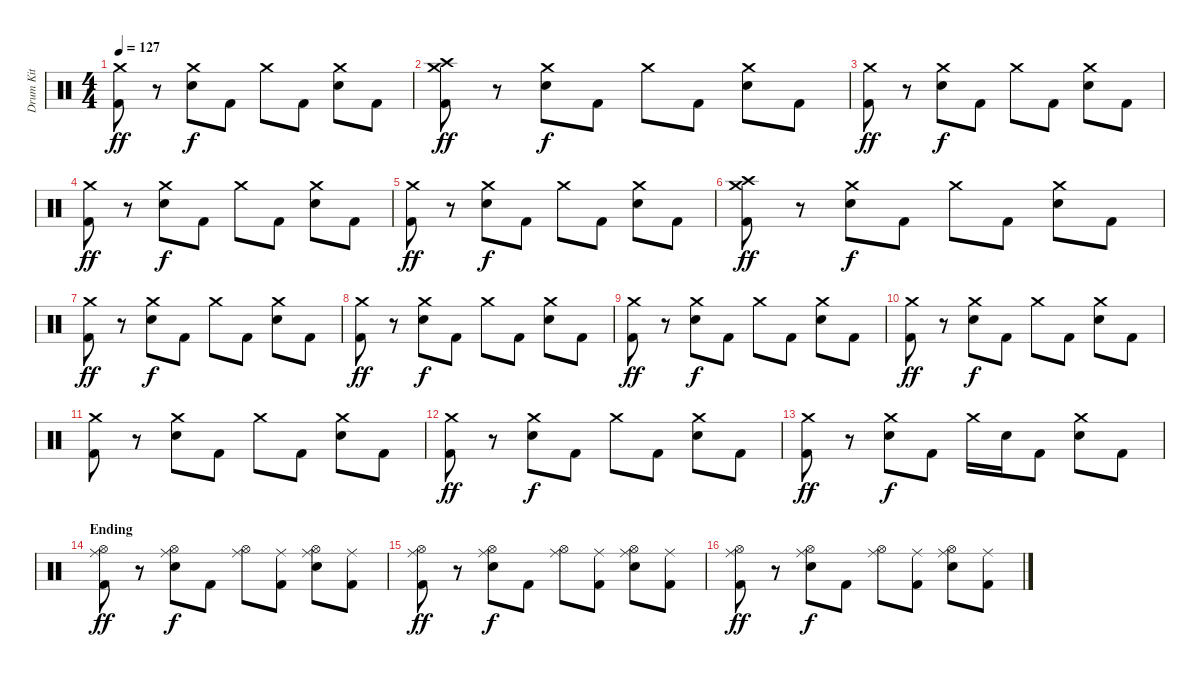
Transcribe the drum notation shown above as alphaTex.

\track ("Drum Kit" "Drum Kit") {instrument percussion}
\staff {score}
\articulation defaults
\ts (4 4)
\tempo 127
\clef neutral
\ks c
("Crash medium (hit)" "Kick (hit) 2").8{dy ff} r.8 ("Crash medium (hit)" "Electric Snare (hit)").8{dy f} "Kick (hit) 2".8 "Crash medium (hit)".8 "Kick (hit) 2".8 ("Crash medium (hit)" "Electric Snare (hit)").8 "Kick (hit) 2".8 |
("Crash high (hit)" "Crash medium (hit)" "Kick (hit) 2").8{dy ff} r.8 ("Crash medium (hit)" "Electric Snare (hit)").8{dy f} "Kick (hit) 2".8 "Crash medium (hit)".8 "Kick (hit) 2".8 ("Crash medium (hit)" "Electric Snare (hit)").8 "Kick (hit) 2".8 |
("Crash medium (hit)" "Kick (hit) 2").8{dy ff} r.8 ("Crash medium (hit)" "Electric Snare (hit)").8{dy f} "Kick (hit) 2".8 "Crash medium (hit)".8 "Kick (hit) 2".8 ("Crash medium (hit)" "Electric Snare (hit)").8 "Kick (hit) 2".8 |
("Crash medium (hit)" "Kick (hit) 2").8{dy ff} r.8 ("Crash medium (hit)" "Electric Snare (hit)").8{dy f} "Kick (hit) 2".8 "Crash medium (hit)".8 "Kick (hit) 2".8 ("Crash medium (hit)" "Electric Snare (hit)").8 "Kick (hit) 2".8 |
("Crash medium (hit)" "Kick (hit) 2").8{dy ff} r.8 ("Crash medium (hit)" "Electric Snare (hit)").8{dy f} "Kick (hit) 2".8 "Crash medium (hit)".8 "Kick (hit) 2".8 ("Crash medium (hit)" "Electric Snare (hit)").8 "Kick (hit) 2".8 |
("Crash high (hit)" "Crash medium (hit)" "Kick (hit) 2").8{dy ff} r.8 ("Crash medium (hit)" "Electric Snare (hit)").8{dy f} "Kick (hit) 2".8 "Crash medium (hit)".8 "Kick (hit) 2".8 ("Crash medium (hit)" "Electric Snare (hit)").8 "Kick (hit) 2".8 |
("Crash medium (hit)" "Kick (hit) 2").8{dy ff} r.8 ("Crash medium (hit)" "Electric Snare (hit)").8{dy f} "Kick (hit) 2".8 "Crash medium (hit)".8 "Kick (hit) 2".8 ("Crash medium (hit)" "Electric Snare (hit)").8 "Kick (hit) 2".8 |
("Crash medium (hit)" "Kick (hit) 2").8{dy ff} r.8 ("Crash medium (hit)" "Electric Snare (hit)").8{dy f} "Kick (hit) 2".8 "Crash medium (hit)".8 "Kick (hit) 2".8 ("Crash medium (hit)" "Electric Snare (hit)").8 "Kick (hit) 2".8 |
("Crash medium (hit)" "Kick (hit) 2").8{dy ff} r.8 ("Crash medium (hit)" "Electric Snare (hit)").8{dy f} "Kick (hit) 2".8 "Crash medium (hit)".8 "Kick (hit) 2".8 ("Crash medium (hit)" "Electric Snare (hit)").8 "Kick (hit) 2".8 |
("Crash medium (hit)" "Kick (hit) 2").8{dy ff} r.8 ("Crash medium (hit)" "Electric Snare (hit)").8{dy f} "Kick (hit) 2".8 "Crash medium (hit)".8 "Kick (hit) 2".8 ("Crash medium (hit)" "Electric Snare (hit)").8 "Kick (hit) 2".8 |
("Crash medium (hit)" "Kick (hit) 2").8 r.8 ("Crash medium (hit)" "Electric Snare (hit)").8 "Kick (hit) 2".8 "Crash medium (hit)".8 "Kick (hit) 2".8 ("Crash medium (hit)" "Electric Snare (hit)").8 "Kick (hit) 2".8 |
("Crash medium (hit)" "Kick (hit) 2").8{dy ff} r.8 ("Crash medium (hit)" "Electric Snare (hit)").8{dy f} "Kick (hit) 2".8 "Crash medium (hit)".8 "Kick (hit) 2".8 ("Crash medium (hit)" "Electric Snare (hit)").8 "Kick (hit) 2".8 |
("Crash medium (hit)" "Kick (hit) 2").8{dy ff} r.8 ("Crash medium (hit)" "Electric Snare (hit)").8{dy f} "Kick (hit) 2".8 "Crash medium (hit)".16 "Electric Snare (hit)".16 "Kick (hit) 2".8 ("Crash medium (hit)" "Electric Snare (hit)").8 "Kick (hit) 2".8 |
\section ("" "Ending")
("Ride (middle)" "Hi-Hat (open)" "Kick (hit) 2").8{dy ff} r.8 ("Ride (middle)" "Hi-Hat (open)" "Electric Snare (hit)").8{dy f} "Kick (hit) 2".8 ("Ride (middle)" "Hi-Hat (open)").8 ("Ride (middle)" "Kick (hit) 2").8 ("Ride (middle)" "Hi-Hat (open)" "Electric Snare (hit)").8 ("Ride (middle)" "Kick (hit) 2").8 |
("Ride (middle)" "Hi-Hat (open)" "Kick (hit) 2").8{dy ff} r.8 ("Ride (middle)" "Hi-Hat (open)" "Electric Snare (hit)").8{dy f} "Kick (hit) 2".8 ("Ride (middle)" "Hi-Hat (open)").8 ("Ride (middle)" "Kick (hit) 2").8 ("Ride (middle)" "Hi-Hat (open)" "Electric Snare (hit)").8 ("Ride (middle)" "Kick (hit) 2").8 |
("Ride (middle)" "Hi-Hat (open)" "Kick (hit) 2").8{dy ff} r.8 ("Ride (middle)" "Hi-Hat (open)" "Electric Snare (hit)").8{dy f} "Kick (hit) 2".8 ("Ride (middle)" "Hi-Hat (open)").8 ("Ride (middle)" "Kick (hit) 2").8 ("Ride (middle)" "Hi-Hat (open)" "Electric Snare (hit)").8 ("Ride (middle)" "Kick (hit) 2").8
